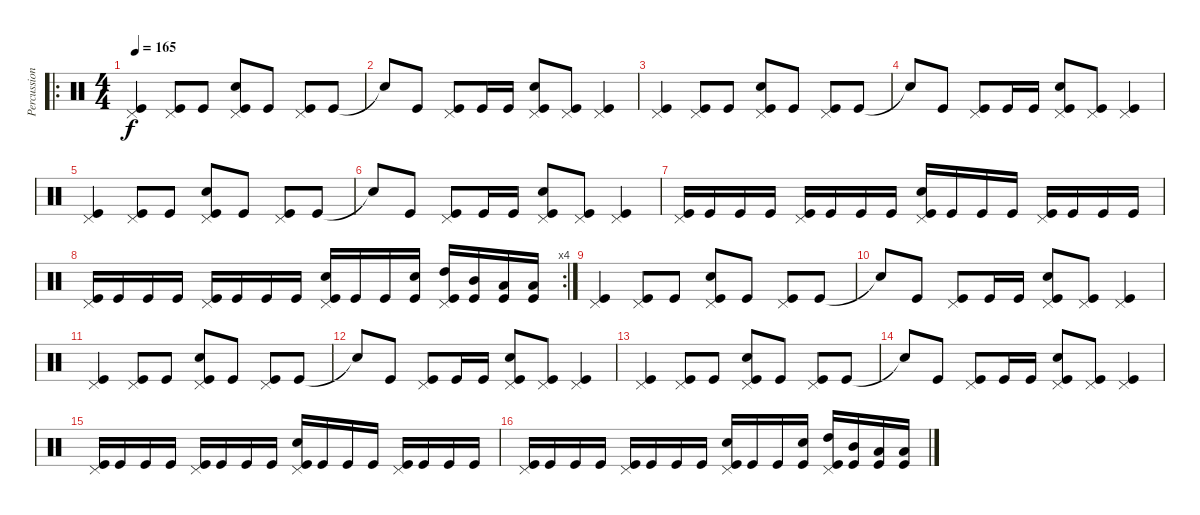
\track ("Percussion" "Percussion") {instrument percussion}
\staff {score}
\articulation defaults
\ro
\ts (4 4)
\tempo 165
\clef neutral
\ks c
("Pedal Hi-Hat (hit)" "Kick (hit)").4{dy f} ("Pedal Hi-Hat (hit)" "Kick (hit)").8 "Kick (hit)".8 ("Pedal Hi-Hat (hit)" "Electric Snare (hit)" "Kick (hit)").8 "Kick (hit)".8 ("Pedal Hi-Hat (hit)" "Kick (hit)").8 "Kick (hit)".8 |
"Snare (hit)"{t}.8 "Kick (hit)".8 ("Pedal Hi-Hat (hit)" "Kick (hit)").8 "Kick (hit)".16 "Kick (hit)".16 ("Pedal Hi-Hat (hit)" "Electric Snare (hit)" "Kick (hit)").8 ("Pedal Hi-Hat (hit)" "Kick (hit)").8 ("Pedal Hi-Hat (hit)" "Kick (hit)").4 |
("Pedal Hi-Hat (hit)" "Kick (hit)").4 ("Pedal Hi-Hat (hit)" "Kick (hit)").8 "Kick (hit)".8 ("Pedal Hi-Hat (hit)" "Electric Snare (hit)" "Kick (hit)").8 "Kick (hit)".8 ("Pedal Hi-Hat (hit)" "Kick (hit)").8 "Kick (hit)".8 |
"Snare (hit)"{t}.8 "Kick (hit)".8 ("Pedal Hi-Hat (hit)" "Kick (hit)").8 "Kick (hit)".16 "Kick (hit)".16 ("Pedal Hi-Hat (hit)" "Electric Snare (hit)" "Kick (hit)").8 ("Pedal Hi-Hat (hit)" "Kick (hit)").8 ("Pedal Hi-Hat (hit)" "Kick (hit)").4 |
("Pedal Hi-Hat (hit)" "Kick (hit)").4 ("Pedal Hi-Hat (hit)" "Kick (hit)").8 "Kick (hit)".8 ("Pedal Hi-Hat (hit)" "Electric Snare (hit)" "Kick (hit)").8 "Kick (hit)".8 ("Pedal Hi-Hat (hit)" "Kick (hit)").8 "Kick (hit)".8 |
"Snare (hit)"{t}.8 "Kick (hit)".8 ("Pedal Hi-Hat (hit)" "Kick (hit)").8 "Kick (hit)".16 "Kick (hit)".16 ("Pedal Hi-Hat (hit)" "Electric Snare (hit)" "Kick (hit)").8 ("Pedal Hi-Hat (hit)" "Kick (hit)").8 ("Pedal Hi-Hat (hit)" "Kick (hit)").4 |
("Pedal Hi-Hat (hit)" "Kick (hit)").16 "Kick (hit)".16 "Kick (hit)".16 "Kick (hit)".16 ("Pedal Hi-Hat (hit)" "Kick (hit)").16 "Kick (hit)".16 "Kick (hit)".16 "Kick (hit)".16 ("Pedal Hi-Hat (hit)" "Electric Snare (hit)" "Kick (hit)").16 "Kick (hit)".16 "Kick (hit)".16 "Kick (hit)".16 ("Pedal Hi-Hat (hit)" "Kick (hit)").16 "Kick (hit)".16 "Kick (hit)".16 "Kick (hit)".16 |
\rc 4
("Pedal Hi-Hat (hit)" "Kick (hit)").16 "Kick (hit)".16 "Kick (hit)".16 "Kick (hit)".16 ("Pedal Hi-Hat (hit)" "Kick (hit)").16 "Kick (hit)".16 "Kick (hit)".16 "Kick (hit)".16 ("Pedal Hi-Hat (hit)" "Electric Snare (hit)" "Kick (hit)").16 "Kick (hit)".16 "Kick (hit)".16 ("Electric Snare (hit)" "Kick (hit)").16 ("Pedal Hi-Hat (hit)" "High Tom (hit)" "Kick (hit)").16 ("Mid Tom (hit)" "Kick (hit)").16 ("Low Tom (hit)" "Kick (hit)").16 ("Low Tom (hit)" "Kick (hit)").16 |
("Pedal Hi-Hat (hit)" "Kick (hit)").4 ("Pedal Hi-Hat (hit)" "Kick (hit)").8 "Kick (hit)".8 ("Pedal Hi-Hat (hit)" "Electric Snare (hit)" "Kick (hit)").8 "Kick (hit)".8 ("Pedal Hi-Hat (hit)" "Kick (hit)").8 "Kick (hit)".8 |
"Snare (hit)"{t}.8 "Kick (hit)".8 ("Pedal Hi-Hat (hit)" "Kick (hit)").8 "Kick (hit)".16 "Kick (hit)".16 ("Pedal Hi-Hat (hit)" "Electric Snare (hit)" "Kick (hit)").8 ("Pedal Hi-Hat (hit)" "Kick (hit)").8 ("Pedal Hi-Hat (hit)" "Kick (hit)").4 |
("Pedal Hi-Hat (hit)" "Kick (hit)").4 ("Pedal Hi-Hat (hit)" "Kick (hit)").8 "Kick (hit)".8 ("Pedal Hi-Hat (hit)" "Electric Snare (hit)" "Kick (hit)").8 "Kick (hit)".8 ("Pedal Hi-Hat (hit)" "Kick (hit)").8 "Kick (hit)".8 |
"Snare (hit)"{t}.8 "Kick (hit)".8 ("Pedal Hi-Hat (hit)" "Kick (hit)").8 "Kick (hit)".16 "Kick (hit)".16 ("Pedal Hi-Hat (hit)" "Electric Snare (hit)" "Kick (hit)").8 ("Pedal Hi-Hat (hit)" "Kick (hit)").8 ("Pedal Hi-Hat (hit)" "Kick (hit)").4 |
("Pedal Hi-Hat (hit)" "Kick (hit)").4 ("Pedal Hi-Hat (hit)" "Kick (hit)").8 "Kick (hit)".8 ("Pedal Hi-Hat (hit)" "Electric Snare (hit)" "Kick (hit)").8 "Kick (hit)".8 ("Pedal Hi-Hat (hit)" "Kick (hit)").8 "Kick (hit)".8 |
"Snare (hit)"{t}.8 "Kick (hit)".8 ("Pedal Hi-Hat (hit)" "Kick (hit)").8 "Kick (hit)".16 "Kick (hit)".16 ("Pedal Hi-Hat (hit)" "Electric Snare (hit)" "Kick (hit)").8 ("Pedal Hi-Hat (hit)" "Kick (hit)").8 ("Pedal Hi-Hat (hit)" "Kick (hit)").4 |
("Pedal Hi-Hat (hit)" "Kick (hit)").16 "Kick (hit)".16 "Kick (hit)".16 "Kick (hit)".16 ("Pedal Hi-Hat (hit)" "Kick (hit)").16 "Kick (hit)".16 "Kick (hit)".16 "Kick (hit)".16 ("Pedal Hi-Hat (hit)" "Electric Snare (hit)" "Kick (hit)").16 "Kick (hit)".16 "Kick (hit)".16 "Kick (hit)".16 ("Pedal Hi-Hat (hit)" "Kick (hit)").16 "Kick (hit)".16 "Kick (hit)".16 "Kick (hit)".16 |
("Pedal Hi-Hat (hit)" "Kick (hit)").16 "Kick (hit)".16 "Kick (hit)".16 "Kick (hit)".16 ("Pedal Hi-Hat (hit)" "Kick (hit)").16 "Kick (hit)".16 "Kick (hit)".16 "Kick (hit)".16 ("Pedal Hi-Hat (hit)" "Electric Snare (hit)" "Kick (hit)").16 "Kick (hit)".16 "Kick (hit)".16 ("Electric Snare (hit)" "Kick (hit)").16 ("Pedal Hi-Hat (hit)" "High Tom (hit)" "Kick (hit)").16 ("Mid Tom (hit)" "Kick (hit)").16 ("Low Tom (hit)" "Kick (hit)").16 ("Low Tom (hit)" "Kick (hit)").16
